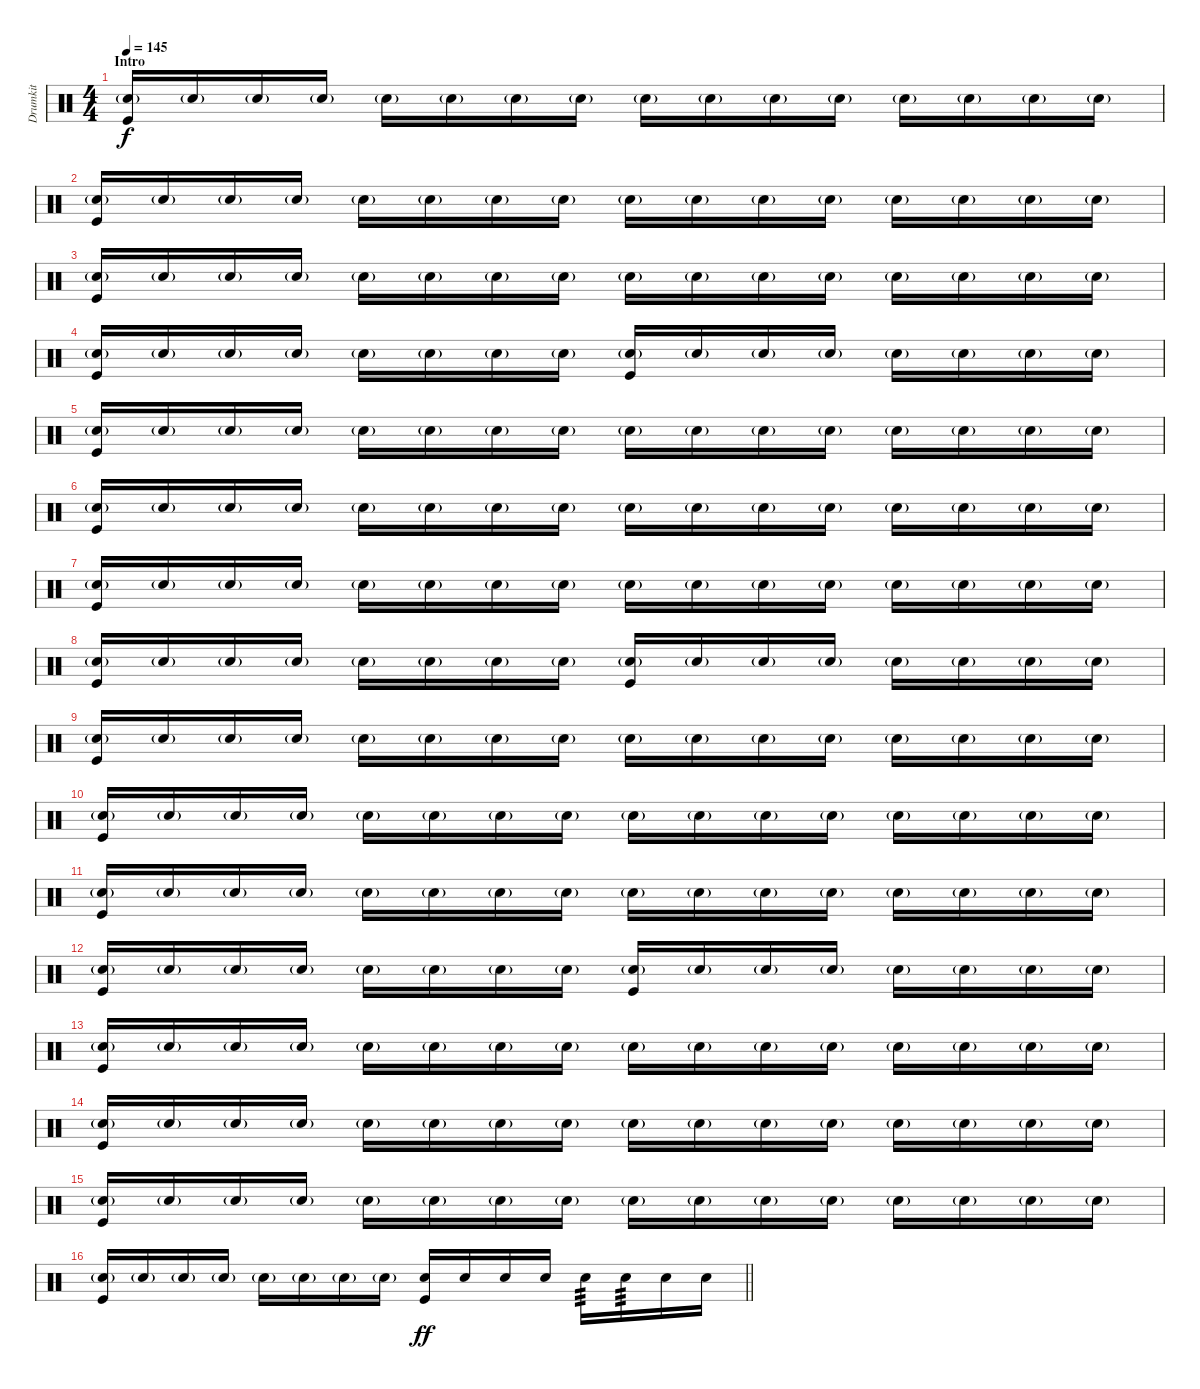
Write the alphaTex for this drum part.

\track ("Drumkit" "Drumkit") {instrument percussion}
\staff {score}
\articulation defaults
\ts (4 4)
\section ("" "Intro")
\tempo 145
\clef neutral
\ks c
("Snare (hit) 2"{g} "Kick (hit)").16{dy f} "Snare (hit) 2"{g}.16 "Snare (hit) 2"{g}.16 "Snare (hit) 2"{g}.16 "Snare (hit) 2"{g}.16 "Snare (hit) 2"{g}.16 "Snare (hit) 2"{g}.16 "Snare (hit) 2"{g}.16 "Snare (hit) 2"{g}.16 "Snare (hit) 2"{g}.16 "Snare (hit) 2"{g}.16 "Snare (hit) 2"{g}.16 "Snare (hit) 2"{g}.16 "Snare (hit) 2"{g}.16 "Snare (hit) 2"{g}.16 "Snare (hit) 2"{g}.16 |
("Snare (hit) 2"{g} "Kick (hit)").16 "Snare (hit) 2"{g}.16 "Snare (hit) 2"{g}.16 "Snare (hit) 2"{g}.16 "Snare (hit) 2"{g}.16 "Snare (hit) 2"{g}.16 "Snare (hit) 2"{g}.16 "Snare (hit) 2"{g}.16 "Snare (hit) 2"{g}.16 "Snare (hit) 2"{g}.16 "Snare (hit) 2"{g}.16 "Snare (hit) 2"{g}.16 "Snare (hit) 2"{g}.16 "Snare (hit) 2"{g}.16 "Snare (hit) 2"{g}.16 "Snare (hit) 2"{g}.16 |
("Snare (hit) 2"{g} "Kick (hit)").16 "Snare (hit) 2"{g}.16 "Snare (hit) 2"{g}.16 "Snare (hit) 2"{g}.16 "Snare (hit) 2"{g}.16 "Snare (hit) 2"{g}.16 "Snare (hit) 2"{g}.16 "Snare (hit) 2"{g}.16 "Snare (hit) 2"{g}.16 "Snare (hit) 2"{g}.16 "Snare (hit) 2"{g}.16 "Snare (hit) 2"{g}.16 "Snare (hit) 2"{g}.16 "Snare (hit) 2"{g}.16 "Snare (hit) 2"{g}.16 "Snare (hit) 2"{g}.16 |
("Snare (hit) 2"{g} "Kick (hit)").16 "Snare (hit) 2"{g}.16 "Snare (hit) 2"{g}.16 "Snare (hit) 2"{g}.16 "Snare (hit) 2"{g}.16 "Snare (hit) 2"{g}.16 "Snare (hit) 2"{g}.16 "Snare (hit) 2"{g}.16 ("Snare (hit) 2"{g} "Kick (hit)").16 "Snare (hit) 2"{g}.16 "Snare (hit) 2"{g}.16 "Snare (hit) 2"{g}.16 "Snare (hit) 2"{g}.16 "Snare (hit) 2"{g}.16 "Snare (hit) 2"{g}.16 "Snare (hit) 2"{g}.16 |
("Snare (hit) 2"{g} "Kick (hit)").16 "Snare (hit) 2"{g}.16 "Snare (hit) 2"{g}.16 "Snare (hit) 2"{g}.16 "Snare (hit) 2"{g}.16 "Snare (hit) 2"{g}.16 "Snare (hit) 2"{g}.16 "Snare (hit) 2"{g}.16 "Snare (hit) 2"{g}.16 "Snare (hit) 2"{g}.16 "Snare (hit) 2"{g}.16 "Snare (hit) 2"{g}.16 "Snare (hit) 2"{g}.16 "Snare (hit) 2"{g}.16 "Snare (hit) 2"{g}.16 "Snare (hit) 2"{g}.16 |
("Snare (hit) 2"{g} "Kick (hit)").16 "Snare (hit) 2"{g}.16 "Snare (hit) 2"{g}.16 "Snare (hit) 2"{g}.16 "Snare (hit) 2"{g}.16 "Snare (hit) 2"{g}.16 "Snare (hit) 2"{g}.16 "Snare (hit) 2"{g}.16 "Snare (hit) 2"{g}.16 "Snare (hit) 2"{g}.16 "Snare (hit) 2"{g}.16 "Snare (hit) 2"{g}.16 "Snare (hit) 2"{g}.16 "Snare (hit) 2"{g}.16 "Snare (hit) 2"{g}.16 "Snare (hit) 2"{g}.16 |
("Snare (hit) 2"{g} "Kick (hit)").16 "Snare (hit) 2"{g}.16 "Snare (hit) 2"{g}.16 "Snare (hit) 2"{g}.16 "Snare (hit) 2"{g}.16 "Snare (hit) 2"{g}.16 "Snare (hit) 2"{g}.16 "Snare (hit) 2"{g}.16 "Snare (hit) 2"{g}.16 "Snare (hit) 2"{g}.16 "Snare (hit) 2"{g}.16 "Snare (hit) 2"{g}.16 "Snare (hit) 2"{g}.16 "Snare (hit) 2"{g}.16 "Snare (hit) 2"{g}.16 "Snare (hit) 2"{g}.16 |
("Snare (hit) 2"{g} "Kick (hit)").16 "Snare (hit) 2"{g}.16 "Snare (hit) 2"{g}.16 "Snare (hit) 2"{g}.16 "Snare (hit) 2"{g}.16 "Snare (hit) 2"{g}.16 "Snare (hit) 2"{g}.16 "Snare (hit) 2"{g}.16 ("Snare (hit) 2"{g} "Kick (hit)").16 "Snare (hit) 2"{g}.16 "Snare (hit) 2"{g}.16 "Snare (hit) 2"{g}.16 "Snare (hit) 2"{g}.16 "Snare (hit) 2"{g}.16 "Snare (hit) 2"{g}.16 "Snare (hit) 2"{g}.16 |
("Snare (hit) 2"{g} "Kick (hit)").16 "Snare (hit) 2"{g}.16 "Snare (hit) 2"{g}.16 "Snare (hit) 2"{g}.16 "Snare (hit) 2"{g}.16 "Snare (hit) 2"{g}.16 "Snare (hit) 2"{g}.16 "Snare (hit) 2"{g}.16 "Snare (hit) 2"{g}.16 "Snare (hit) 2"{g}.16 "Snare (hit) 2"{g}.16 "Snare (hit) 2"{g}.16 "Snare (hit) 2"{g}.16 "Snare (hit) 2"{g}.16 "Snare (hit) 2"{g}.16 "Snare (hit) 2"{g}.16 |
("Snare (hit) 2"{g} "Kick (hit)").16 "Snare (hit) 2"{g}.16 "Snare (hit) 2"{g}.16 "Snare (hit) 2"{g}.16 "Snare (hit) 2"{g}.16 "Snare (hit) 2"{g}.16 "Snare (hit) 2"{g}.16 "Snare (hit) 2"{g}.16 "Snare (hit) 2"{g}.16 "Snare (hit) 2"{g}.16 "Snare (hit) 2"{g}.16 "Snare (hit) 2"{g}.16 "Snare (hit) 2"{g}.16 "Snare (hit) 2"{g}.16 "Snare (hit) 2"{g}.16 "Snare (hit) 2"{g}.16 |
("Snare (hit) 2"{g} "Kick (hit)").16 "Snare (hit) 2"{g}.16 "Snare (hit) 2"{g}.16 "Snare (hit) 2"{g}.16 "Snare (hit) 2"{g}.16 "Snare (hit) 2"{g}.16 "Snare (hit) 2"{g}.16 "Snare (hit) 2"{g}.16 "Snare (hit) 2"{g}.16 "Snare (hit) 2"{g}.16 "Snare (hit) 2"{g}.16 "Snare (hit) 2"{g}.16 "Snare (hit) 2"{g}.16 "Snare (hit) 2"{g}.16 "Snare (hit) 2"{g}.16 "Snare (hit) 2"{g}.16 |
("Snare (hit) 2"{g} "Kick (hit)").16 "Snare (hit) 2"{g}.16 "Snare (hit) 2"{g}.16 "Snare (hit) 2"{g}.16 "Snare (hit) 2"{g}.16 "Snare (hit) 2"{g}.16 "Snare (hit) 2"{g}.16 "Snare (hit) 2"{g}.16 ("Snare (hit) 2"{g} "Kick (hit)").16 "Snare (hit) 2"{g}.16 "Snare (hit) 2"{g}.16 "Snare (hit) 2"{g}.16 "Snare (hit) 2"{g}.16 "Snare (hit) 2"{g}.16 "Snare (hit) 2"{g}.16 "Snare (hit) 2"{g}.16 |
("Snare (hit) 2"{g} "Kick (hit)").16 "Snare (hit) 2"{g}.16 "Snare (hit) 2"{g}.16 "Snare (hit) 2"{g}.16 "Snare (hit) 2"{g}.16 "Snare (hit) 2"{g}.16 "Snare (hit) 2"{g}.16 "Snare (hit) 2"{g}.16 "Snare (hit) 2"{g}.16 "Snare (hit) 2"{g}.16 "Snare (hit) 2"{g}.16 "Snare (hit) 2"{g}.16 "Snare (hit) 2"{g}.16 "Snare (hit) 2"{g}.16 "Snare (hit) 2"{g}.16 "Snare (hit) 2"{g}.16 |
("Snare (hit) 2"{g} "Kick (hit)").16 "Snare (hit) 2"{g}.16 "Snare (hit) 2"{g}.16 "Snare (hit) 2"{g}.16 "Snare (hit) 2"{g}.16 "Snare (hit) 2"{g}.16 "Snare (hit) 2"{g}.16 "Snare (hit) 2"{g}.16 "Snare (hit) 2"{g}.16 "Snare (hit) 2"{g}.16 "Snare (hit) 2"{g}.16 "Snare (hit) 2"{g}.16 "Snare (hit) 2"{g}.16 "Snare (hit) 2"{g}.16 "Snare (hit) 2"{g}.16 "Snare (hit) 2"{g}.16 |
("Snare (hit) 2"{g} "Kick (hit)").16 "Snare (hit) 2"{g}.16 "Snare (hit) 2"{g}.16 "Snare (hit) 2"{g}.16 "Snare (hit) 2"{g}.16 "Snare (hit) 2"{g}.16 "Snare (hit) 2"{g}.16 "Snare (hit) 2"{g}.16 "Snare (hit) 2"{g}.16 "Snare (hit) 2"{g}.16 "Snare (hit) 2"{g}.16 "Snare (hit) 2"{g}.16 "Snare (hit) 2"{g}.16 "Snare (hit) 2"{g}.16 "Snare (hit) 2"{g}.16 "Snare (hit) 2"{g}.16 |
\barLineRight lightlight
("Snare (hit) 2"{g} "Kick (hit)").16 "Snare (hit) 2"{g}.16 "Snare (hit) 2"{g}.16 "Snare (hit) 2"{g}.16 "Snare (hit) 2"{g}.16 "Snare (hit) 2"{g}.16 "Snare (hit) 2"{g}.16 "Snare (hit) 2"{g}.16 ("Snare (hit) 2" "Kick (hit)").16{dy ff} "Snare (hit) 2".16 "Snare (hit) 2".16 "Snare (hit) 2".16 "Snare (hit) 2".16{tp 3} "Snare (hit) 2".16{tp 3} "Snare (hit) 2".16 "Snare (hit) 2".16
